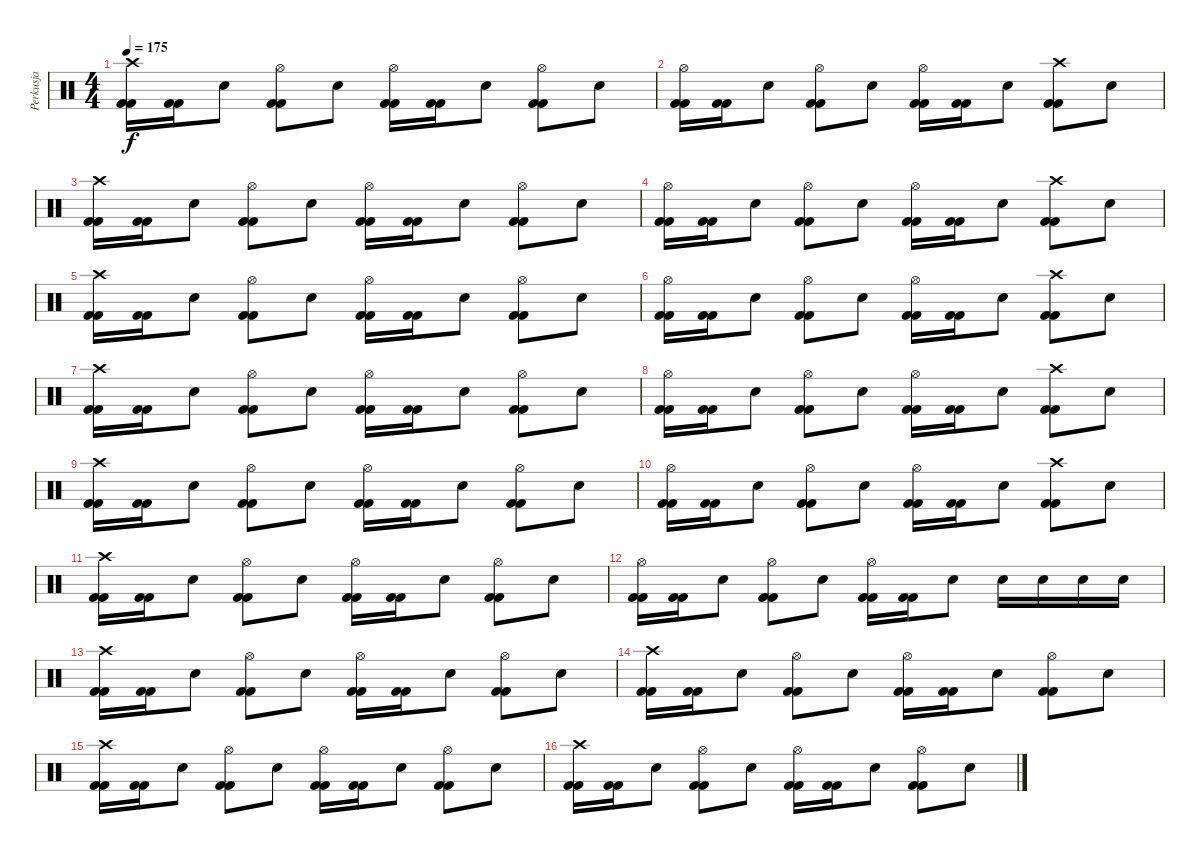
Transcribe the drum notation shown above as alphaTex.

\track ("Perkusja" "Perkusja") {instrument percussion}
\staff {score}
\articulation defaults
\ts (4 4)
\tempo 175
\clef neutral
\ks c
("Crash high (hit)" "Kick (hit) 2" "Kick (hit) 2").16{dy f} ("Kick (hit) 2" "Kick (hit) 2").16 "Electric Snare (hit)".8 ("Hi-Hat (open)" "Kick (hit) 2" "Kick (hit) 2").8 "Electric Snare (hit)".8 ("Hi-Hat (open)" "Kick (hit) 2" "Kick (hit) 2").16 ("Kick (hit) 2" "Kick (hit) 2").16 "Electric Snare (hit)".8 ("Hi-Hat (open)" "Kick (hit) 2" "Kick (hit) 2").8 "Electric Snare (hit)".8 |
("Hi-Hat (open)" "Kick (hit) 2" "Kick (hit) 2").16 ("Kick (hit) 2" "Kick (hit) 2").16 "Electric Snare (hit)".8 ("Hi-Hat (open)" "Kick (hit) 2" "Kick (hit) 2").8 "Electric Snare (hit)".8 ("Hi-Hat (open)" "Kick (hit) 2" "Kick (hit) 2").16 ("Kick (hit) 2" "Kick (hit) 2").16 "Electric Snare (hit)".8 ("Crash high (hit)" "Kick (hit) 2" "Kick (hit) 2").8 "Electric Snare (hit)".8 |
("Crash high (hit)" "Kick (hit) 2" "Kick (hit) 2").16 ("Kick (hit) 2" "Kick (hit) 2").16 "Electric Snare (hit)".8 ("Hi-Hat (open)" "Kick (hit) 2" "Kick (hit) 2").8 "Electric Snare (hit)".8 ("Hi-Hat (open)" "Kick (hit) 2" "Kick (hit) 2").16 ("Kick (hit) 2" "Kick (hit) 2").16 "Electric Snare (hit)".8 ("Hi-Hat (open)" "Kick (hit) 2" "Kick (hit) 2").8 "Electric Snare (hit)".8 |
("Hi-Hat (open)" "Kick (hit) 2" "Kick (hit) 2").16 ("Kick (hit) 2" "Kick (hit) 2").16 "Electric Snare (hit)".8 ("Hi-Hat (open)" "Kick (hit) 2" "Kick (hit) 2").8 "Electric Snare (hit)".8 ("Hi-Hat (open)" "Kick (hit) 2" "Kick (hit) 2").16 ("Kick (hit) 2" "Kick (hit) 2").16 "Electric Snare (hit)".8 ("Crash high (hit)" "Kick (hit) 2" "Kick (hit) 2").8 "Electric Snare (hit)".8 |
("Crash high (hit)" "Kick (hit) 2" "Kick (hit) 2").16 ("Kick (hit) 2" "Kick (hit) 2").16 "Electric Snare (hit)".8 ("Hi-Hat (open)" "Kick (hit) 2" "Kick (hit) 2").8 "Electric Snare (hit)".8 ("Hi-Hat (open)" "Kick (hit) 2" "Kick (hit) 2").16 ("Kick (hit) 2" "Kick (hit) 2").16 "Electric Snare (hit)".8 ("Hi-Hat (open)" "Kick (hit) 2" "Kick (hit) 2").8 "Electric Snare (hit)".8 |
("Hi-Hat (open)" "Kick (hit) 2" "Kick (hit) 2").16 ("Kick (hit) 2" "Kick (hit) 2").16 "Electric Snare (hit)".8 ("Hi-Hat (open)" "Kick (hit) 2" "Kick (hit) 2").8 "Electric Snare (hit)".8 ("Hi-Hat (open)" "Kick (hit) 2" "Kick (hit) 2").16 ("Kick (hit) 2" "Kick (hit) 2").16 "Electric Snare (hit)".8 ("Crash high (hit)" "Kick (hit) 2" "Kick (hit) 2").8 "Electric Snare (hit)".8 |
("Crash high (hit)" "Kick (hit) 2" "Kick (hit) 2").16 ("Kick (hit) 2" "Kick (hit) 2").16 "Electric Snare (hit)".8 ("Hi-Hat (open)" "Kick (hit) 2" "Kick (hit) 2").8 "Electric Snare (hit)".8 ("Hi-Hat (open)" "Kick (hit) 2" "Kick (hit) 2").16 ("Kick (hit) 2" "Kick (hit) 2").16 "Electric Snare (hit)".8 ("Hi-Hat (open)" "Kick (hit) 2" "Kick (hit) 2").8 "Electric Snare (hit)".8 |
("Hi-Hat (open)" "Kick (hit) 2" "Kick (hit) 2").16 ("Kick (hit) 2" "Kick (hit) 2").16 "Electric Snare (hit)".8 ("Hi-Hat (open)" "Kick (hit) 2" "Kick (hit) 2").8 "Electric Snare (hit)".8 ("Hi-Hat (open)" "Kick (hit) 2" "Kick (hit) 2").16 ("Kick (hit) 2" "Kick (hit) 2").16 "Electric Snare (hit)".8 ("Crash high (hit)" "Kick (hit) 2" "Kick (hit) 2").8 "Electric Snare (hit)".8 |
("Crash high (hit)" "Kick (hit) 2" "Kick (hit) 2").16 ("Kick (hit) 2" "Kick (hit) 2").16 "Electric Snare (hit)".8 ("Hi-Hat (open)" "Kick (hit) 2" "Kick (hit) 2").8 "Electric Snare (hit)".8 ("Hi-Hat (open)" "Kick (hit) 2" "Kick (hit) 2").16 ("Kick (hit) 2" "Kick (hit) 2").16 "Electric Snare (hit)".8 ("Hi-Hat (open)" "Kick (hit) 2" "Kick (hit) 2").8 "Electric Snare (hit)".8 |
("Hi-Hat (open)" "Kick (hit) 2" "Kick (hit) 2").16 ("Kick (hit) 2" "Kick (hit) 2").16 "Electric Snare (hit)".8 ("Hi-Hat (open)" "Kick (hit) 2" "Kick (hit) 2").8 "Electric Snare (hit)".8 ("Hi-Hat (open)" "Kick (hit) 2" "Kick (hit) 2").16 ("Kick (hit) 2" "Kick (hit) 2").16 "Electric Snare (hit)".8 ("Crash high (hit)" "Kick (hit) 2" "Kick (hit) 2").8 "Electric Snare (hit)".8 |
("Crash high (hit)" "Kick (hit) 2" "Kick (hit) 2").16 ("Kick (hit) 2" "Kick (hit) 2").16 "Electric Snare (hit)".8 ("Hi-Hat (open)" "Kick (hit) 2" "Kick (hit) 2").8 "Electric Snare (hit)".8 ("Hi-Hat (open)" "Kick (hit) 2" "Kick (hit) 2").16 ("Kick (hit) 2" "Kick (hit) 2").16 "Electric Snare (hit)".8 ("Hi-Hat (open)" "Kick (hit) 2" "Kick (hit) 2").8 "Electric Snare (hit)".8 |
("Hi-Hat (open)" "Kick (hit) 2" "Kick (hit) 2").16 ("Kick (hit) 2" "Kick (hit) 2").16 "Electric Snare (hit)".8 ("Hi-Hat (open)" "Kick (hit) 2" "Kick (hit) 2").8 "Electric Snare (hit)".8 ("Hi-Hat (open)" "Kick (hit) 2" "Kick (hit) 2").16 ("Kick (hit) 2" "Kick (hit) 2").16 "Electric Snare (hit)".8 "Electric Snare (hit)".16 "Electric Snare (hit)".16 "Electric Snare (hit)".16 "Electric Snare (hit)".16 |
("Crash high (hit)" "Kick (hit) 2" "Kick (hit) 2").16 ("Kick (hit) 2" "Kick (hit) 2").16 "Electric Snare (hit)".8 ("Hi-Hat (open)" "Kick (hit) 2" "Kick (hit) 2").8 "Electric Snare (hit)".8 ("Hi-Hat (open)" "Kick (hit) 2" "Kick (hit) 2").16 ("Kick (hit) 2" "Kick (hit) 2").16 "Electric Snare (hit)".8 ("Hi-Hat (open)" "Kick (hit) 2" "Kick (hit) 2").8 "Electric Snare (hit)".8 |
("Crash high (hit)" "Kick (hit) 2" "Kick (hit) 2").16 ("Kick (hit) 2" "Kick (hit) 2").16 "Electric Snare (hit)".8 ("Hi-Hat (open)" "Kick (hit) 2" "Kick (hit) 2").8 "Electric Snare (hit)".8 ("Hi-Hat (open)" "Kick (hit) 2" "Kick (hit) 2").16 ("Kick (hit) 2" "Kick (hit) 2").16 "Electric Snare (hit)".8 ("Hi-Hat (open)" "Kick (hit) 2" "Kick (hit) 2").8 "Electric Snare (hit)".8 |
("Crash high (hit)" "Kick (hit) 2" "Kick (hit) 2").16 ("Kick (hit) 2" "Kick (hit) 2").16 "Electric Snare (hit)".8 ("Hi-Hat (open)" "Kick (hit) 2" "Kick (hit) 2").8 "Electric Snare (hit)".8 ("Hi-Hat (open)" "Kick (hit) 2" "Kick (hit) 2").16 ("Kick (hit) 2" "Kick (hit) 2").16 "Electric Snare (hit)".8 ("Hi-Hat (open)" "Kick (hit) 2" "Kick (hit) 2").8 "Electric Snare (hit)".8 |
("Crash high (hit)" "Kick (hit) 2" "Kick (hit) 2").16 ("Kick (hit) 2" "Kick (hit) 2").16 "Electric Snare (hit)".8 ("Hi-Hat (open)" "Kick (hit) 2" "Kick (hit) 2").8 "Electric Snare (hit)".8 ("Hi-Hat (open)" "Kick (hit) 2" "Kick (hit) 2").16 ("Kick (hit) 2" "Kick (hit) 2").16 "Electric Snare (hit)".8 ("Hi-Hat (open)" "Kick (hit) 2" "Kick (hit) 2").8 "Electric Snare (hit)".8
